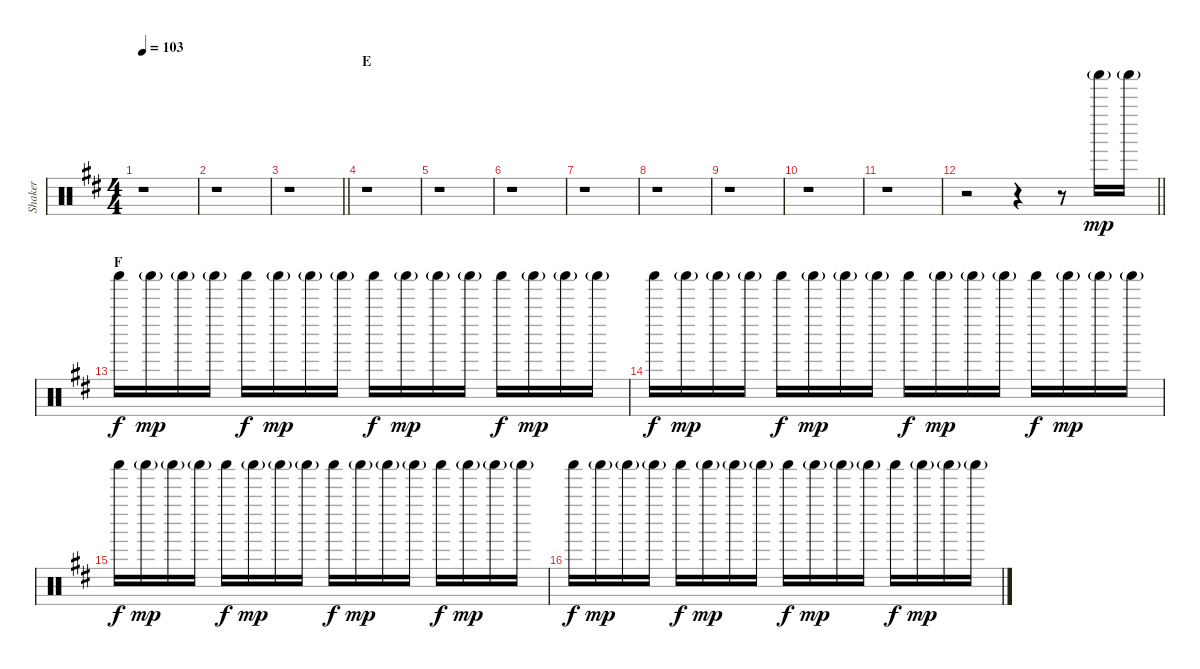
\track ("Shaker" "Shaker") {instrument percussion}
\staff {score}
\articulation defaults
\ts (4 4)
\tempo 103
\clef neutral
\ks d
r.1{dy mp} |
r.1 |
\barLineRight lightlight
r.1 |
\section ("" "E")
r.1 |
r.1 |
r.1 |
r.1 |
r.1 |
r.1 |
r.1 |
r.1 |
\barLineRight lightlight
r.2 r.4 r.8 "Shaker (hit)"{g}.16 "Shaker (hit)"{g}.16 |
\section ("" "F")
"Shaker (hit)".16{dy f} "Shaker (hit)"{g}.16{dy mp} "Shaker (hit)"{g}.16 "Shaker (hit)"{g}.16 "Shaker (hit)".16{dy f} "Shaker (hit)"{g}.16{dy mp} "Shaker (hit)"{g}.16 "Shaker (hit)"{g}.16 "Shaker (hit)".16{dy f} "Shaker (hit)"{g}.16{dy mp} "Shaker (hit)"{g}.16 "Shaker (hit)"{g}.16 "Shaker (hit)".16{dy f} "Shaker (hit)"{g}.16{dy mp} "Shaker (hit)"{g}.16 "Shaker (hit)"{g}.16 |
"Shaker (hit)".16{dy f} "Shaker (hit)"{g}.16{dy mp} "Shaker (hit)"{g}.16 "Shaker (hit)"{g}.16 "Shaker (hit)".16{dy f} "Shaker (hit)"{g}.16{dy mp} "Shaker (hit)"{g}.16 "Shaker (hit)"{g}.16 "Shaker (hit)".16{dy f} "Shaker (hit)"{g}.16{dy mp} "Shaker (hit)"{g}.16 "Shaker (hit)"{g}.16 "Shaker (hit)".16{dy f} "Shaker (hit)"{g}.16{dy mp} "Shaker (hit)"{g}.16 "Shaker (hit)"{g}.16 |
"Shaker (hit)".16{dy f} "Shaker (hit)"{g}.16{dy mp} "Shaker (hit)"{g}.16 "Shaker (hit)"{g}.16 "Shaker (hit)".16{dy f} "Shaker (hit)"{g}.16{dy mp} "Shaker (hit)"{g}.16 "Shaker (hit)"{g}.16 "Shaker (hit)".16{dy f} "Shaker (hit)"{g}.16{dy mp} "Shaker (hit)"{g}.16 "Shaker (hit)"{g}.16 "Shaker (hit)".16{dy f} "Shaker (hit)"{g}.16{dy mp} "Shaker (hit)"{g}.16 "Shaker (hit)"{g}.16 |
"Shaker (hit)".16{dy f} "Shaker (hit)"{g}.16{dy mp} "Shaker (hit)"{g}.16 "Shaker (hit)"{g}.16 "Shaker (hit)".16{dy f} "Shaker (hit)"{g}.16{dy mp} "Shaker (hit)"{g}.16 "Shaker (hit)"{g}.16 "Shaker (hit)".16{dy f} "Shaker (hit)"{g}.16{dy mp} "Shaker (hit)"{g}.16 "Shaker (hit)"{g}.16 "Shaker (hit)".16{dy f} "Shaker (hit)"{g}.16{dy mp} "Shaker (hit)"{g}.16 "Shaker (hit)"{g}.16
